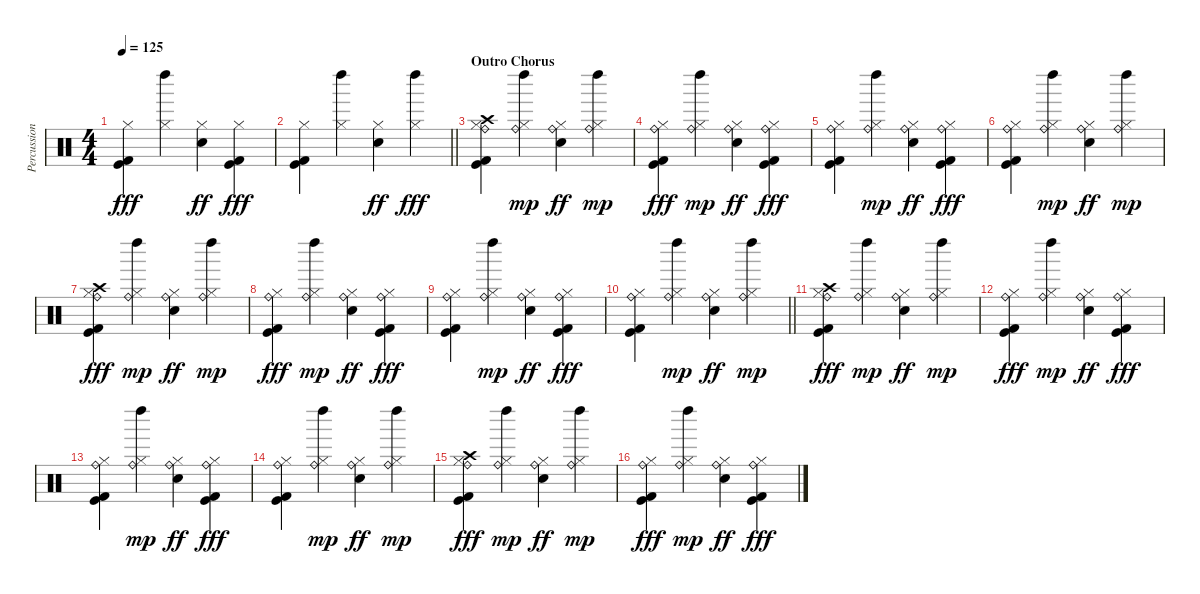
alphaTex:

\track ("Percussion" "Percussion") {instrument percussion}
\staff {score}
\articulation defaults
\ts (4 4)
\tempo 125
\clef neutral
\ks c
("Hi-Hat (closed)" "Kick (hit)" "Kick (hit) 2").4{dy fff} ("Hi-Hat (closed)" "Left Maraca (hit)").4 ("Hi-Hat (closed)" "Snare (hit) 2").4{dy ff} ("Hi-Hat (closed)" "Kick (hit)" "Kick (hit) 2").4{dy fff} |
\barLineRight lightlight
("Hi-Hat (closed)" "Kick (hit)" "Kick (hit) 2").4 ("Hi-Hat (closed)" "Left Maraca (hit)").4 ("Hi-Hat (closed)" "Snare (hit) 2").4{dy ff} ("Hi-Hat (closed)" "Left Maraca (hit)").4{dy fff} |
\section ("" "Outro Chorus")
("Hi-Hat (closed)" "Crash high (hit)" "Ride (bell)" "Kick (hit)" "Kick (hit) 2").4 ("Hi-Hat (closed)" "Left Maraca (hit)" "Ride (bell)").4{dy mp} ("Hi-Hat (closed)" "Ride (bell)" "Snare (hit) 2").4{dy ff} ("Hi-Hat (closed)" "Left Maraca (hit)" "Ride (bell)").4{dy mp} |
("Hi-Hat (closed)" "Ride (bell)" "Kick (hit)" "Kick (hit) 2").4{dy fff} ("Hi-Hat (closed)" "Left Maraca (hit)" "Ride (bell)").4{dy mp} ("Hi-Hat (closed)" "Ride (bell)" "Snare (hit) 2").4{dy ff} ("Hi-Hat (closed)" "Ride (bell)" "Kick (hit)" "Kick (hit) 2").4{dy fff} |
("Hi-Hat (closed)" "Ride (bell)" "Kick (hit)" "Kick (hit) 2").4 ("Hi-Hat (closed)" "Left Maraca (hit)" "Ride (bell)").4{dy mp} ("Hi-Hat (closed)" "Ride (bell)" "Snare (hit) 2").4{dy ff} ("Hi-Hat (closed)" "Ride (bell)" "Kick (hit)" "Kick (hit) 2").4{dy fff} |
("Hi-Hat (closed)" "Ride (bell)" "Kick (hit)" "Kick (hit) 2").4 ("Hi-Hat (closed)" "Left Maraca (hit)" "Ride (bell)").4{dy mp} ("Hi-Hat (closed)" "Ride (bell)" "Snare (hit) 2").4{dy ff} ("Hi-Hat (closed)" "Left Maraca (hit)" "Ride (bell)").4{dy mp} |
("Hi-Hat (closed)" "Crash high (hit)" "Ride (bell)" "Kick (hit)" "Kick (hit) 2").4{dy fff} ("Hi-Hat (closed)" "Left Maraca (hit)" "Ride (bell)").4{dy mp} ("Hi-Hat (closed)" "Ride (bell)" "Snare (hit) 2").4{dy ff} ("Hi-Hat (closed)" "Left Maraca (hit)" "Ride (bell)").4{dy mp} |
("Hi-Hat (closed)" "Ride (bell)" "Kick (hit)" "Kick (hit) 2").4{dy fff} ("Hi-Hat (closed)" "Left Maraca (hit)" "Ride (bell)").4{dy mp} ("Hi-Hat (closed)" "Ride (bell)" "Snare (hit) 2").4{dy ff} ("Hi-Hat (closed)" "Ride (bell)" "Kick (hit)" "Kick (hit) 2").4{dy fff} |
("Hi-Hat (closed)" "Ride (bell)" "Kick (hit)" "Kick (hit) 2").4 ("Hi-Hat (closed)" "Left Maraca (hit)" "Ride (bell)").4{dy mp} ("Hi-Hat (closed)" "Ride (bell)" "Snare (hit) 2").4{dy ff} ("Hi-Hat (closed)" "Ride (bell)" "Kick (hit)" "Kick (hit) 2").4{dy fff} |
\barLineRight lightlight
("Hi-Hat (closed)" "Ride (bell)" "Kick (hit)" "Kick (hit) 2").4 ("Hi-Hat (closed)" "Left Maraca (hit)" "Ride (bell)").4{dy mp} ("Hi-Hat (closed)" "Ride (bell)" "Snare (hit) 2").4{dy ff} ("Hi-Hat (closed)" "Left Maraca (hit)" "Ride (bell)").4{dy mp} |
("Hi-Hat (closed)" "Crash high (hit)" "Ride (bell)" "Kick (hit)" "Kick (hit) 2").4{dy fff} ("Hi-Hat (closed)" "Left Maraca (hit)" "Ride (bell)").4{dy mp} ("Hi-Hat (closed)" "Ride (bell)" "Snare (hit) 2").4{dy ff} ("Hi-Hat (closed)" "Left Maraca (hit)" "Ride (bell)").4{dy mp} |
("Hi-Hat (closed)" "Ride (bell)" "Kick (hit)" "Kick (hit) 2").4{dy fff} ("Hi-Hat (closed)" "Left Maraca (hit)" "Ride (bell)").4{dy mp} ("Hi-Hat (closed)" "Ride (bell)" "Snare (hit) 2").4{dy ff} ("Hi-Hat (closed)" "Ride (bell)" "Kick (hit)" "Kick (hit) 2").4{dy fff} |
("Hi-Hat (closed)" "Ride (bell)" "Kick (hit)" "Kick (hit) 2").4 ("Hi-Hat (closed)" "Left Maraca (hit)" "Ride (bell)").4{dy mp} ("Hi-Hat (closed)" "Ride (bell)" "Snare (hit) 2").4{dy ff} ("Hi-Hat (closed)" "Ride (bell)" "Kick (hit)" "Kick (hit) 2").4{dy fff} |
("Hi-Hat (closed)" "Ride (bell)" "Kick (hit)" "Kick (hit) 2").4 ("Hi-Hat (closed)" "Left Maraca (hit)" "Ride (bell)").4{dy mp} ("Hi-Hat (closed)" "Ride (bell)" "Snare (hit) 2").4{dy ff} ("Hi-Hat (closed)" "Left Maraca (hit)" "Ride (bell)").4{dy mp} |
("Hi-Hat (closed)" "Crash high (hit)" "Ride (bell)" "Kick (hit)" "Kick (hit) 2").4{dy fff} ("Hi-Hat (closed)" "Left Maraca (hit)" "Ride (bell)").4{dy mp} ("Hi-Hat (closed)" "Ride (bell)" "Snare (hit) 2").4{dy ff} ("Hi-Hat (closed)" "Left Maraca (hit)" "Ride (bell)").4{dy mp} |
("Hi-Hat (closed)" "Ride (bell)" "Kick (hit)" "Kick (hit) 2").4{dy fff} ("Hi-Hat (closed)" "Left Maraca (hit)" "Ride (bell)").4{dy mp} ("Hi-Hat (closed)" "Ride (bell)" "Snare (hit) 2").4{dy ff} ("Hi-Hat (closed)" "Ride (bell)" "Kick (hit)" "Kick (hit) 2").4{dy fff}
